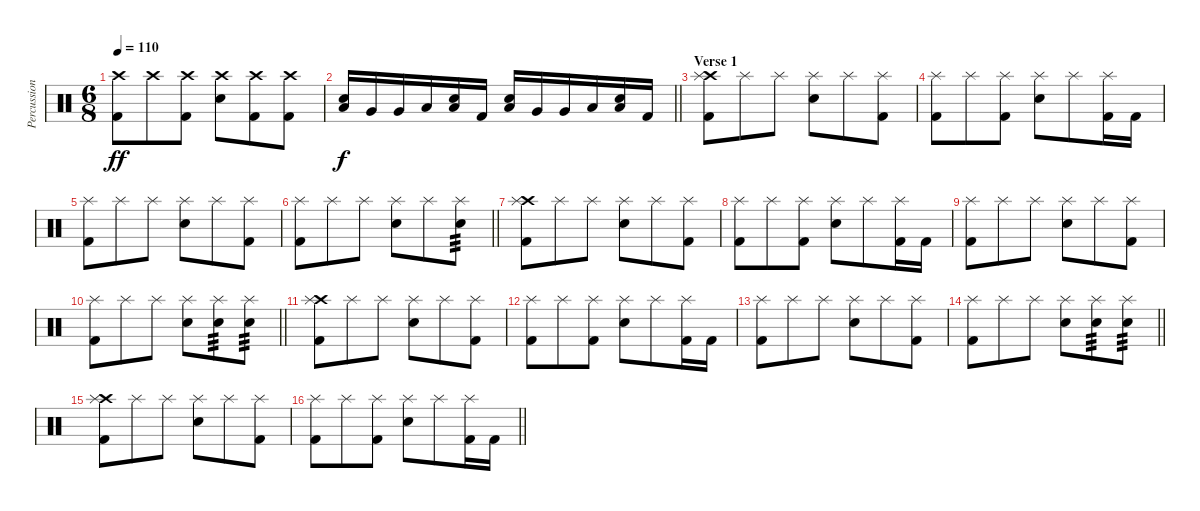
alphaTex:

\track ("Percussion" "Percussion") {instrument percussion}
\staff {score}
\articulation defaults
\ts (6 8)
\tempo 110
\clef neutral
\ks c
("Crash high (hit)" "Kick (hit) 2").8{dy ff} "Crash high (hit)".8 ("Crash high (hit)" "Kick (hit) 2").8 ("Crash high (hit)" "Snare (hit) 2").8 ("Crash high (hit)" "Kick (hit) 2").8 ("Crash high (hit)" "Kick (hit) 2").8 |
\barLineRight lightlight
("Snare (hit) 2" "Low Tom (hit)").16{dy f} "Very Low Tom (hit)".16 "Very Low Tom (hit)".16 "Low Floor Tom (hit)".16 ("Snare (hit) 2" "Low Floor Tom (hit)").16 "Kick (hit) 2".16 ("Snare (hit) 2" "Low Tom (hit)").16 "Very Low Tom (hit)".16 "Very Low Tom (hit)".16 "Low Floor Tom (hit)".16 ("Snare (hit) 2" "Low Floor Tom (hit)").16 "Kick (hit) 2".16 |
\section ("" "Verse 1")
("Crash high (hit)" "Splash (hit)" "Kick (hit) 2").8 "Splash (hit)".8 "Splash (hit)".8 ("Splash (hit)" "Snare (hit) 2").8 "Splash (hit)".8 ("Splash (hit)" "Kick (hit) 2").8 |
("Splash (hit)" "Kick (hit) 2").8 "Splash (hit)".8 ("Splash (hit)" "Kick (hit) 2").8 ("Splash (hit)" "Snare (hit) 2").8 "Splash (hit)".8 ("Splash (hit)" "Kick (hit) 2").16 "Kick (hit) 2".16 |
("Splash (hit)" "Kick (hit) 2").8 "Splash (hit)".8 "Splash (hit)".8 ("Splash (hit)" "Snare (hit) 2").8 "Splash (hit)".8 ("Splash (hit)" "Kick (hit) 2").8 |
\barLineRight lightlight
("Splash (hit)" "Kick (hit) 2").8 "Splash (hit)".8 "Splash (hit)".8 ("Splash (hit)" "Snare (hit) 2").8 "Splash (hit)".8 ("Splash (hit)" "Snare (hit) 2").8{tp 3} |
\section ("" "")
("Crash high (hit)" "Splash (hit)" "Kick (hit) 2").8 "Splash (hit)".8 "Splash (hit)".8 ("Splash (hit)" "Snare (hit) 2").8 "Splash (hit)".8 ("Splash (hit)" "Kick (hit) 2").8 |
("Splash (hit)" "Kick (hit) 2").8 "Splash (hit)".8 ("Splash (hit)" "Kick (hit) 2").8 ("Splash (hit)" "Snare (hit) 2").8 "Splash (hit)".8 ("Splash (hit)" "Kick (hit) 2").16 "Kick (hit) 2".16 |
("Splash (hit)" "Kick (hit) 2").8 "Splash (hit)".8 "Splash (hit)".8 ("Splash (hit)" "Snare (hit) 2").8 "Splash (hit)".8 ("Splash (hit)" "Kick (hit) 2").8 |
\barLineRight lightlight
("Splash (hit)" "Kick (hit) 2").8 "Splash (hit)".8 "Splash (hit)".8 ("Splash (hit)" "Snare (hit) 2").8 ("Splash (hit)" "Snare (hit) 2").8{tp 3} ("Splash (hit)" "Snare (hit) 2").8{tp 3} |
\section ("" "")
("Crash high (hit)" "Splash (hit)" "Kick (hit) 2").8 "Splash (hit)".8 "Splash (hit)".8 ("Splash (hit)" "Snare (hit) 2").8 "Splash (hit)".8 ("Splash (hit)" "Kick (hit) 2").8 |
("Splash (hit)" "Kick (hit) 2").8 "Splash (hit)".8 ("Splash (hit)" "Kick (hit) 2").8 ("Splash (hit)" "Snare (hit) 2").8 "Splash (hit)".8 ("Splash (hit)" "Kick (hit) 2").16 "Kick (hit) 2".16 |
("Splash (hit)" "Kick (hit) 2").8 "Splash (hit)".8 "Splash (hit)".8 ("Splash (hit)" "Snare (hit) 2").8 "Splash (hit)".8 ("Splash (hit)" "Kick (hit) 2").8 |
\barLineRight lightlight
("Splash (hit)" "Kick (hit) 2").8 "Splash (hit)".8 "Splash (hit)".8 ("Splash (hit)" "Snare (hit) 2").8 ("Splash (hit)" "Snare (hit) 2").8{tp 3} ("Splash (hit)" "Snare (hit) 2").8{tp 3} |
\section ("" "")
("Crash high (hit)" "Splash (hit)" "Kick (hit) 2").8 "Splash (hit)".8 "Splash (hit)".8 ("Splash (hit)" "Snare (hit) 2").8 "Splash (hit)".8 ("Splash (hit)" "Kick (hit) 2").8 |
\barLineRight lightlight
("Splash (hit)" "Kick (hit) 2").8 "Splash (hit)".8 ("Splash (hit)" "Kick (hit) 2").8 ("Splash (hit)" "Snare (hit) 2").8 "Splash (hit)".8 ("Splash (hit)" "Kick (hit) 2").16 "Kick (hit) 2".16
